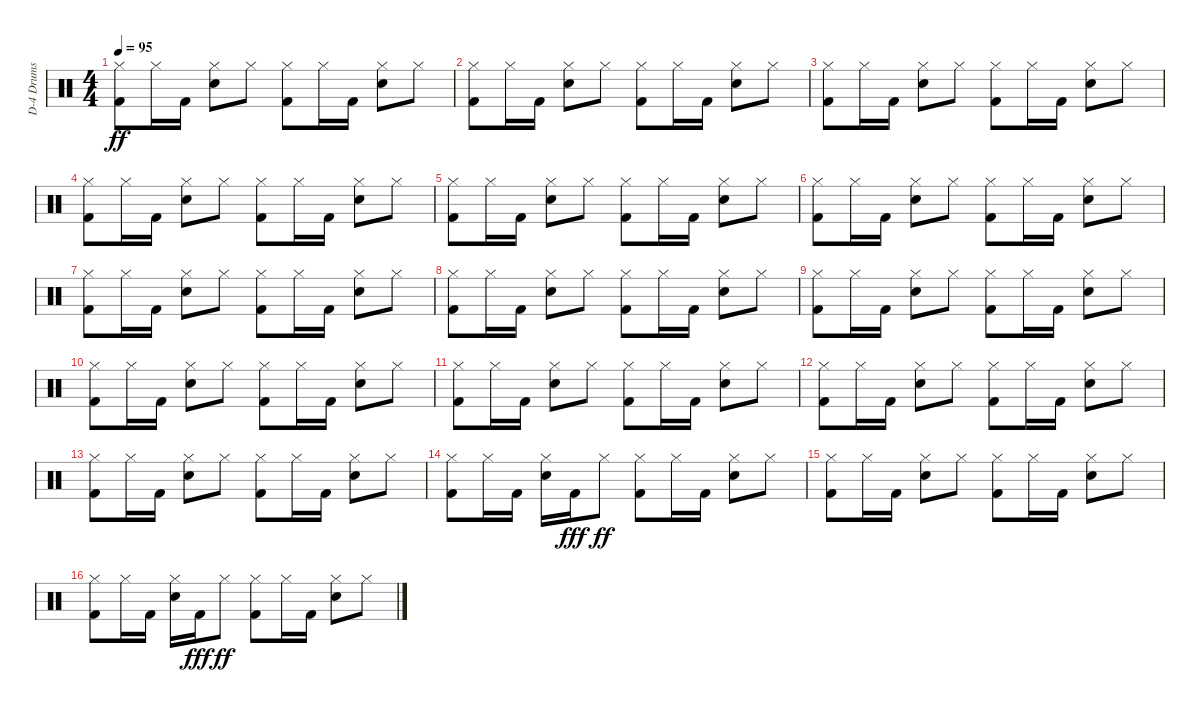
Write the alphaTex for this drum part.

\track ("D-4 Drums" "D-4 Drums") {instrument percussion}
\staff {score}
\articulation defaults
\ts (4 4)
\tempo 95
\clef neutral
\ks c
("Kick (hit) 2" "Hi-Hat (closed)").8{dy ff} "Hi-Hat (closed)".16 "Kick (hit) 2".16 ("Snare (hit) 2" "Hi-Hat (closed)").8 "Hi-Hat (closed)".8 ("Kick (hit) 2" "Hi-Hat (closed)").8 "Hi-Hat (closed)".16 "Kick (hit) 2".16 ("Snare (hit) 2" "Hi-Hat (closed)").8 "Hi-Hat (closed)".8 |
("Kick (hit) 2" "Hi-Hat (closed)").8 "Hi-Hat (closed)".16 "Kick (hit) 2".16 ("Snare (hit) 2" "Hi-Hat (closed)").8 "Hi-Hat (closed)".8 ("Kick (hit) 2" "Hi-Hat (closed)").8 "Hi-Hat (closed)".16 "Kick (hit) 2".16 ("Snare (hit) 2" "Hi-Hat (closed)").8 "Hi-Hat (closed)".8 |
("Kick (hit) 2" "Hi-Hat (closed)").8 "Hi-Hat (closed)".16 "Kick (hit) 2".16 ("Snare (hit) 2" "Hi-Hat (closed)").8 "Hi-Hat (closed)".8 ("Kick (hit) 2" "Hi-Hat (closed)").8 "Hi-Hat (closed)".16 "Kick (hit) 2".16 ("Snare (hit) 2" "Hi-Hat (closed)").8 "Hi-Hat (closed)".8 |
("Kick (hit) 2" "Hi-Hat (closed)").8 "Hi-Hat (closed)".16 "Kick (hit) 2".16 ("Snare (hit) 2" "Hi-Hat (closed)").8 "Hi-Hat (closed)".8 ("Kick (hit) 2" "Hi-Hat (closed)").8 "Hi-Hat (closed)".16 "Kick (hit) 2".16 ("Snare (hit) 2" "Hi-Hat (closed)").8 "Hi-Hat (closed)".8 |
("Kick (hit) 2" "Hi-Hat (closed)").8 "Hi-Hat (closed)".16 "Kick (hit) 2".16 ("Snare (hit) 2" "Hi-Hat (closed)").8 "Hi-Hat (closed)".8 ("Kick (hit) 2" "Hi-Hat (closed)").8 "Hi-Hat (closed)".16 "Kick (hit) 2".16 ("Snare (hit) 2" "Hi-Hat (closed)").8 "Hi-Hat (closed)".8 |
("Kick (hit) 2" "Hi-Hat (closed)").8 "Hi-Hat (closed)".16 "Kick (hit) 2".16 ("Snare (hit) 2" "Hi-Hat (closed)").8 "Hi-Hat (closed)".8 ("Kick (hit) 2" "Hi-Hat (closed)").8 "Hi-Hat (closed)".16 "Kick (hit) 2".16 ("Snare (hit) 2" "Hi-Hat (closed)").8 "Hi-Hat (closed)".8 |
("Kick (hit) 2" "Hi-Hat (closed)").8 "Hi-Hat (closed)".16 "Kick (hit) 2".16 ("Snare (hit) 2" "Hi-Hat (closed)").8 "Hi-Hat (closed)".8 ("Kick (hit) 2" "Hi-Hat (closed)").8 "Hi-Hat (closed)".16 "Kick (hit) 2".16 ("Snare (hit) 2" "Hi-Hat (closed)").8 "Hi-Hat (closed)".8 |
("Kick (hit) 2" "Hi-Hat (closed)").8 "Hi-Hat (closed)".16 "Kick (hit) 2".16 ("Snare (hit) 2" "Hi-Hat (closed)").8 "Hi-Hat (closed)".8 ("Kick (hit) 2" "Hi-Hat (closed)").8 "Hi-Hat (closed)".16 "Kick (hit) 2".16 ("Snare (hit) 2" "Hi-Hat (closed)").8 "Hi-Hat (closed)".8 |
("Kick (hit) 2" "Hi-Hat (closed)").8 "Hi-Hat (closed)".16 "Kick (hit) 2".16 ("Snare (hit) 2" "Hi-Hat (closed)").8 "Hi-Hat (closed)".8 ("Kick (hit) 2" "Hi-Hat (closed)").8 "Hi-Hat (closed)".16 "Kick (hit) 2".16 ("Snare (hit) 2" "Hi-Hat (closed)").8 "Hi-Hat (closed)".8 |
("Kick (hit) 2" "Hi-Hat (closed)").8 "Hi-Hat (closed)".16 "Kick (hit) 2".16 ("Snare (hit) 2" "Hi-Hat (closed)").8 "Hi-Hat (closed)".8 ("Kick (hit) 2" "Hi-Hat (closed)").8 "Hi-Hat (closed)".16 "Kick (hit) 2".16 ("Snare (hit) 2" "Hi-Hat (closed)").8 "Hi-Hat (closed)".8 |
("Kick (hit) 2" "Hi-Hat (closed)").8 "Hi-Hat (closed)".16 "Kick (hit) 2".16 ("Snare (hit) 2" "Hi-Hat (closed)").8 "Hi-Hat (closed)".8 ("Kick (hit) 2" "Hi-Hat (closed)").8 "Hi-Hat (closed)".16 "Kick (hit) 2".16 ("Snare (hit) 2" "Hi-Hat (closed)").8 "Hi-Hat (closed)".8 |
("Kick (hit) 2" "Hi-Hat (closed)").8 "Hi-Hat (closed)".16 "Kick (hit) 2".16 ("Snare (hit) 2" "Hi-Hat (closed)").8 "Hi-Hat (closed)".8 ("Kick (hit) 2" "Hi-Hat (closed)").8 "Hi-Hat (closed)".16 "Kick (hit) 2".16 ("Snare (hit) 2" "Hi-Hat (closed)").8 "Hi-Hat (closed)".8 |
("Kick (hit) 2" "Hi-Hat (closed)").8 "Hi-Hat (closed)".16 "Kick (hit) 2".16 ("Snare (hit) 2" "Hi-Hat (closed)").8 "Hi-Hat (closed)".8 ("Kick (hit) 2" "Hi-Hat (closed)").8 "Hi-Hat (closed)".16 "Kick (hit) 2".16 ("Snare (hit) 2" "Hi-Hat (closed)").8 "Hi-Hat (closed)".8 |
("Kick (hit) 2" "Hi-Hat (closed)").8 "Hi-Hat (closed)".16 "Kick (hit) 2".16 ("Snare (hit) 2" "Hi-Hat (closed)").16 "Kick (hit) 2".16{dy fff} "Hi-Hat (closed)".8{dy ff} ("Kick (hit) 2" "Hi-Hat (closed)").8 "Hi-Hat (closed)".16 "Kick (hit) 2".16 ("Snare (hit) 2" "Hi-Hat (closed)").8 "Hi-Hat (closed)".8 |
("Kick (hit) 2" "Hi-Hat (closed)").8 "Hi-Hat (closed)".16 "Kick (hit) 2".16 ("Snare (hit) 2" "Hi-Hat (closed)").8 "Hi-Hat (closed)".8 ("Kick (hit) 2" "Hi-Hat (closed)").8 "Hi-Hat (closed)".16 "Kick (hit) 2".16 ("Snare (hit) 2" "Hi-Hat (closed)").8 "Hi-Hat (closed)".8 |
("Kick (hit) 2" "Hi-Hat (closed)").8 "Hi-Hat (closed)".16 "Kick (hit) 2".16 ("Snare (hit) 2" "Hi-Hat (closed)").16 "Kick (hit) 2".16{dy fff} "Hi-Hat (closed)".8{dy ff} ("Kick (hit) 2" "Hi-Hat (closed)").8 "Hi-Hat (closed)".16 "Kick (hit) 2".16 ("Snare (hit) 2" "Hi-Hat (closed)").8 "Hi-Hat (closed)".8
